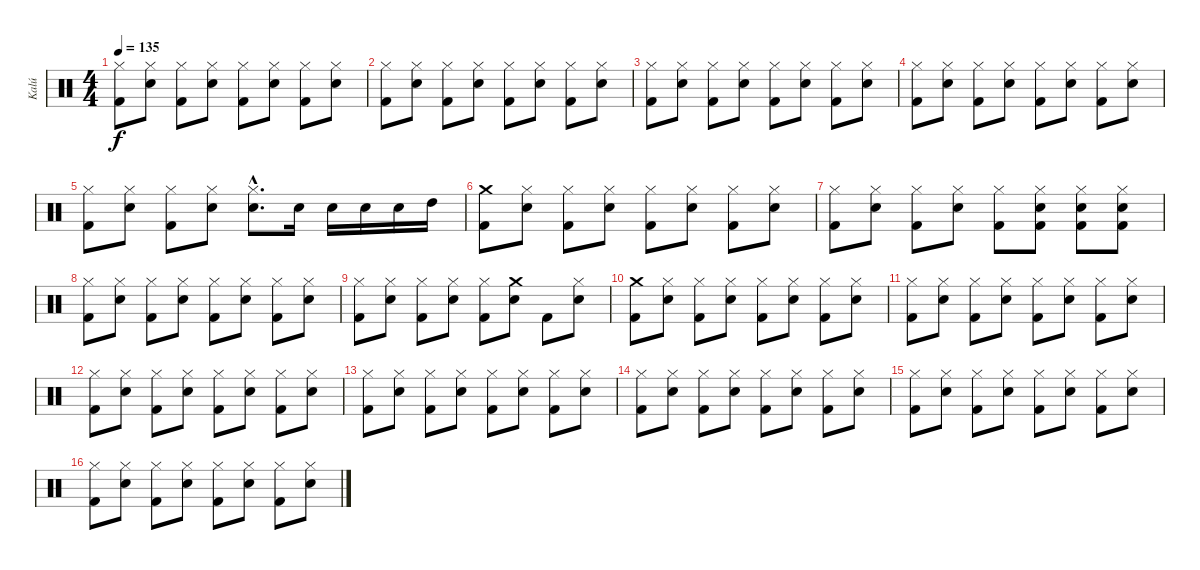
\track ("Kalú" "Kalú") {instrument percussion}
\staff {score}
\articulation defaults
\ts (4 4)
\tempo 135
\clef neutral
\ks c
("Hi-Hat (closed)" "Kick (hit) 2").8{dy f} ("Hi-Hat (closed)" "Electric Snare (hit)").8 ("Hi-Hat (closed)" "Kick (hit) 2").8 ("Hi-Hat (closed)" "Electric Snare (hit)").8 ("Hi-Hat (closed)" "Kick (hit) 2").8 ("Hi-Hat (closed)" "Electric Snare (hit)").8 ("Hi-Hat (closed)" "Kick (hit) 2").8 ("Hi-Hat (closed)" "Electric Snare (hit)").8 |
("Hi-Hat (closed)" "Kick (hit) 2").8 ("Hi-Hat (closed)" "Electric Snare (hit)").8 ("Hi-Hat (closed)" "Kick (hit) 2").8 ("Hi-Hat (closed)" "Electric Snare (hit)").8 ("Hi-Hat (closed)" "Kick (hit) 2").8 ("Hi-Hat (closed)" "Electric Snare (hit)").8 ("Hi-Hat (closed)" "Kick (hit) 2").8 ("Hi-Hat (closed)" "Electric Snare (hit)").8 |
("Hi-Hat (closed)" "Kick (hit) 2").8 ("Hi-Hat (closed)" "Electric Snare (hit)").8 ("Hi-Hat (closed)" "Kick (hit) 2").8 ("Hi-Hat (closed)" "Electric Snare (hit)").8 ("Hi-Hat (closed)" "Kick (hit) 2").8 ("Hi-Hat (closed)" "Electric Snare (hit)").8 ("Hi-Hat (closed)" "Kick (hit) 2").8 ("Hi-Hat (closed)" "Electric Snare (hit)").8 |
("Hi-Hat (closed)" "Kick (hit) 2").8 ("Hi-Hat (closed)" "Electric Snare (hit)").8 ("Hi-Hat (closed)" "Kick (hit) 2").8 ("Hi-Hat (closed)" "Electric Snare (hit)").8 ("Hi-Hat (closed)" "Kick (hit) 2").8 ("Hi-Hat (closed)" "Electric Snare (hit)").8 ("Hi-Hat (closed)" "Kick (hit) 2").8 ("Hi-Hat (closed)" "Electric Snare (hit)").8 |
("Hi-Hat (closed)" "Kick (hit) 2").8 ("Hi-Hat (closed)" "Electric Snare (hit)").8 ("Hi-Hat (closed)" "Kick (hit) 2").8 ("Hi-Hat (closed)" "Electric Snare (hit)").8 ("Hi-Hat (closed)"{hac} "Electric Snare (hit)"{hac}).8{d} "Electric Snare (hit)".16 "Electric Snare (hit)".16 "Electric Snare (hit)".16 "Electric Snare (hit)".16 "High Tom (hit)".16 |
("Crash medium (hit)" "Kick (hit) 2").8 ("Hi-Hat (closed)" "Electric Snare (hit)").8 ("Hi-Hat (closed)" "Kick (hit) 2").8 ("Hi-Hat (closed)" "Electric Snare (hit)").8 ("Hi-Hat (closed)" "Kick (hit) 2").8 ("Hi-Hat (closed)" "Electric Snare (hit)").8 ("Hi-Hat (closed)" "Kick (hit) 2").8 ("Hi-Hat (closed)" "Electric Snare (hit)").8 |
("Hi-Hat (closed)" "Kick (hit) 2").8 ("Hi-Hat (closed)" "Electric Snare (hit)").8 ("Hi-Hat (closed)" "Kick (hit) 2").8 ("Hi-Hat (closed)" "Electric Snare (hit)").8 ("Hi-Hat (closed)" "Kick (hit) 2").8 ("Hi-Hat (closed)" "Kick (hit) 2" "Electric Snare (hit)").8 ("Hi-Hat (closed)" "Kick (hit) 2" "Electric Snare (hit)").8 ("Hi-Hat (closed)" "Kick (hit) 2" "Electric Snare (hit)").8 |
("Hi-Hat (closed)" "Kick (hit) 2").8 ("Hi-Hat (closed)" "Electric Snare (hit)").8 ("Hi-Hat (closed)" "Kick (hit) 2").8 ("Hi-Hat (closed)" "Electric Snare (hit)").8 ("Hi-Hat (closed)" "Kick (hit) 2").8 ("Hi-Hat (closed)" "Electric Snare (hit)").8 ("Hi-Hat (closed)" "Kick (hit) 2").8 ("Hi-Hat (closed)" "Electric Snare (hit)").8 |
("Hi-Hat (closed)" "Kick (hit) 2").8 ("Hi-Hat (closed)" "Electric Snare (hit)").8 ("Hi-Hat (closed)" "Kick (hit) 2").8 ("Hi-Hat (closed)" "Electric Snare (hit)").8 ("Hi-Hat (closed)" "Kick (hit) 2").8 ("Crash medium (hit)" "Electric Snare (hit)").8 "Kick (hit) 2".8 ("Hi-Hat (closed)" "Electric Snare (hit)").8 |
("Crash medium (hit)" "Kick (hit) 2").8 ("Hi-Hat (closed)" "Electric Snare (hit)").8 ("Hi-Hat (closed)" "Kick (hit) 2").8 ("Hi-Hat (closed)" "Electric Snare (hit)").8 ("Hi-Hat (closed)" "Kick (hit) 2").8 ("Hi-Hat (closed)" "Electric Snare (hit)").8 ("Hi-Hat (closed)" "Kick (hit) 2").8 ("Hi-Hat (closed)" "Electric Snare (hit)").8 |
("Hi-Hat (closed)" "Kick (hit) 2").8 ("Hi-Hat (closed)" "Electric Snare (hit)").8 ("Hi-Hat (closed)" "Kick (hit) 2").8 ("Hi-Hat (closed)" "Electric Snare (hit)").8 ("Hi-Hat (closed)" "Kick (hit) 2").8 ("Hi-Hat (closed)" "Electric Snare (hit)").8 ("Hi-Hat (closed)" "Kick (hit) 2").8 ("Hi-Hat (closed)" "Electric Snare (hit)").8 |
("Hi-Hat (closed)" "Kick (hit) 2").8 ("Hi-Hat (closed)" "Electric Snare (hit)").8 ("Hi-Hat (closed)" "Kick (hit) 2").8 ("Hi-Hat (closed)" "Electric Snare (hit)").8 ("Hi-Hat (closed)" "Kick (hit) 2").8 ("Hi-Hat (closed)" "Electric Snare (hit)").8 ("Hi-Hat (closed)" "Kick (hit) 2").8 ("Hi-Hat (closed)" "Electric Snare (hit)").8 |
("Hi-Hat (closed)" "Kick (hit) 2").8 ("Hi-Hat (closed)" "Electric Snare (hit)").8 ("Hi-Hat (closed)" "Kick (hit) 2").8 ("Hi-Hat (closed)" "Electric Snare (hit)").8 ("Hi-Hat (closed)" "Kick (hit) 2").8 ("Hi-Hat (closed)" "Electric Snare (hit)").8 ("Hi-Hat (closed)" "Kick (hit) 2").8 ("Hi-Hat (closed)" "Electric Snare (hit)").8 |
("Hi-Hat (closed)" "Kick (hit) 2").8 ("Hi-Hat (closed)" "Electric Snare (hit)").8 ("Hi-Hat (closed)" "Kick (hit) 2").8 ("Hi-Hat (closed)" "Electric Snare (hit)").8 ("Hi-Hat (closed)" "Kick (hit) 2").8 ("Hi-Hat (closed)" "Electric Snare (hit)").8 ("Hi-Hat (closed)" "Kick (hit) 2").8 ("Hi-Hat (closed)" "Electric Snare (hit)").8 |
("Hi-Hat (closed)" "Kick (hit) 2").8 ("Hi-Hat (closed)" "Electric Snare (hit)").8 ("Hi-Hat (closed)" "Kick (hit) 2").8 ("Hi-Hat (closed)" "Electric Snare (hit)").8 ("Hi-Hat (closed)" "Kick (hit) 2").8 ("Hi-Hat (closed)" "Electric Snare (hit)").8 ("Hi-Hat (closed)" "Kick (hit) 2").8 ("Hi-Hat (closed)" "Electric Snare (hit)").8 |
("Hi-Hat (closed)" "Kick (hit) 2").8 ("Hi-Hat (closed)" "Electric Snare (hit)").8 ("Hi-Hat (closed)" "Kick (hit) 2").8 ("Hi-Hat (closed)" "Electric Snare (hit)").8 ("Hi-Hat (closed)" "Kick (hit) 2").8 ("Hi-Hat (closed)" "Electric Snare (hit)").8 ("Hi-Hat (closed)" "Kick (hit) 2").8 ("Hi-Hat (closed)" "Electric Snare (hit)").8
